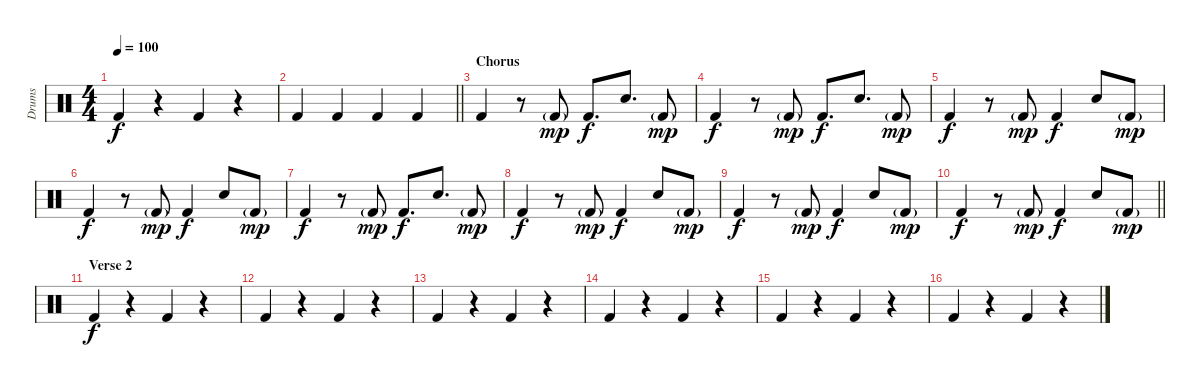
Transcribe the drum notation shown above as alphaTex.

\track ("Drums" "Drums") {instrument percussion}
\staff {score}
\articulation defaults
\ts (4 4)
\tempo 100
\clef neutral
\ks c "Kick (hit) 2".4{dy f}
r.4 "Kick (hit) 2".4 r.4 |
\barLineRight lightlight "Kick (hit) 2".4 "Kick (hit) 2".4 "Kick (hit) 2".4 "Kick (hit) 2".4
|
\section ("" "Chorus")
"Kick (hit) 2".4 r.8 "Kick (hit) 2"{g}.8{dy mp} "Kick (hit) 2".8{d dy f} "Snare (hit) 2".8{d} "Kick (hit) 2"{g}.8{dy mp} |
"Kick (hit) 2".4{dy f} r.8 "Kick (hit) 2"{g}.8{dy mp} "Kick (hit) 2".8{d dy f} "Snare (hit) 2".8{d} "Kick (hit) 2"{g}.8{dy mp} |
"Kick (hit) 2".4{dy f} r.8 "Kick (hit) 2"{g}.8{dy mp} "Kick (hit) 2".4{dy f} "Snare (hit) 2".8 "Kick (hit) 2"{g}.8{dy mp} |
"Kick (hit) 2".4{dy f} r.8 "Kick (hit) 2"{g}.8{dy mp} "Kick (hit) 2".4{dy f} "Snare (hit) 2".8 "Kick (hit) 2"{g}.8{dy mp} |
"Kick (hit) 2".4{dy f} r.8 "Kick (hit) 2"{g}.8{dy mp} "Kick (hit) 2".8{d dy f} "Snare (hit) 2".8{d} "Kick (hit) 2"{g}.8{dy mp} |
"Kick (hit) 2".4{dy f} r.8 "Kick (hit) 2"{g}.8{dy mp} "Kick (hit) 2".4{dy f} "Snare (hit) 2".8 "Kick (hit) 2"{g}.8{dy mp} |
"Kick (hit) 2".4{dy f} r.8 "Kick (hit) 2"{g}.8{dy mp} "Kick (hit) 2".4{dy f} "Snare (hit) 2".8 "Kick (hit) 2"{g}.8{dy mp} |
\barLineRight lightlight "Kick (hit) 2".4{dy f}
r.8 "Kick (hit) 2"{g}.8{dy mp} "Kick (hit) 2".4{dy f} "Snare (hit) 2".8 "Kick (hit) 2"{g}.8{dy mp} |
\section ("" "Verse 2")
"Kick (hit) 2".4{dy f} r.4 "Kick (hit) 2".4 r.4 |
"Kick (hit) 2".4 r.4 "Kick (hit) 2".4 r.4 |
"Kick (hit) 2".4 r.4 "Kick (hit) 2".4 r.4 |
"Kick (hit) 2".4 r.4 "Kick (hit) 2".4 r.4 |
"Kick (hit) 2".4 r.4 "Kick (hit) 2".4 r.4 |
"Kick (hit) 2".4 r.4 "Kick (hit) 2".4 r.4
